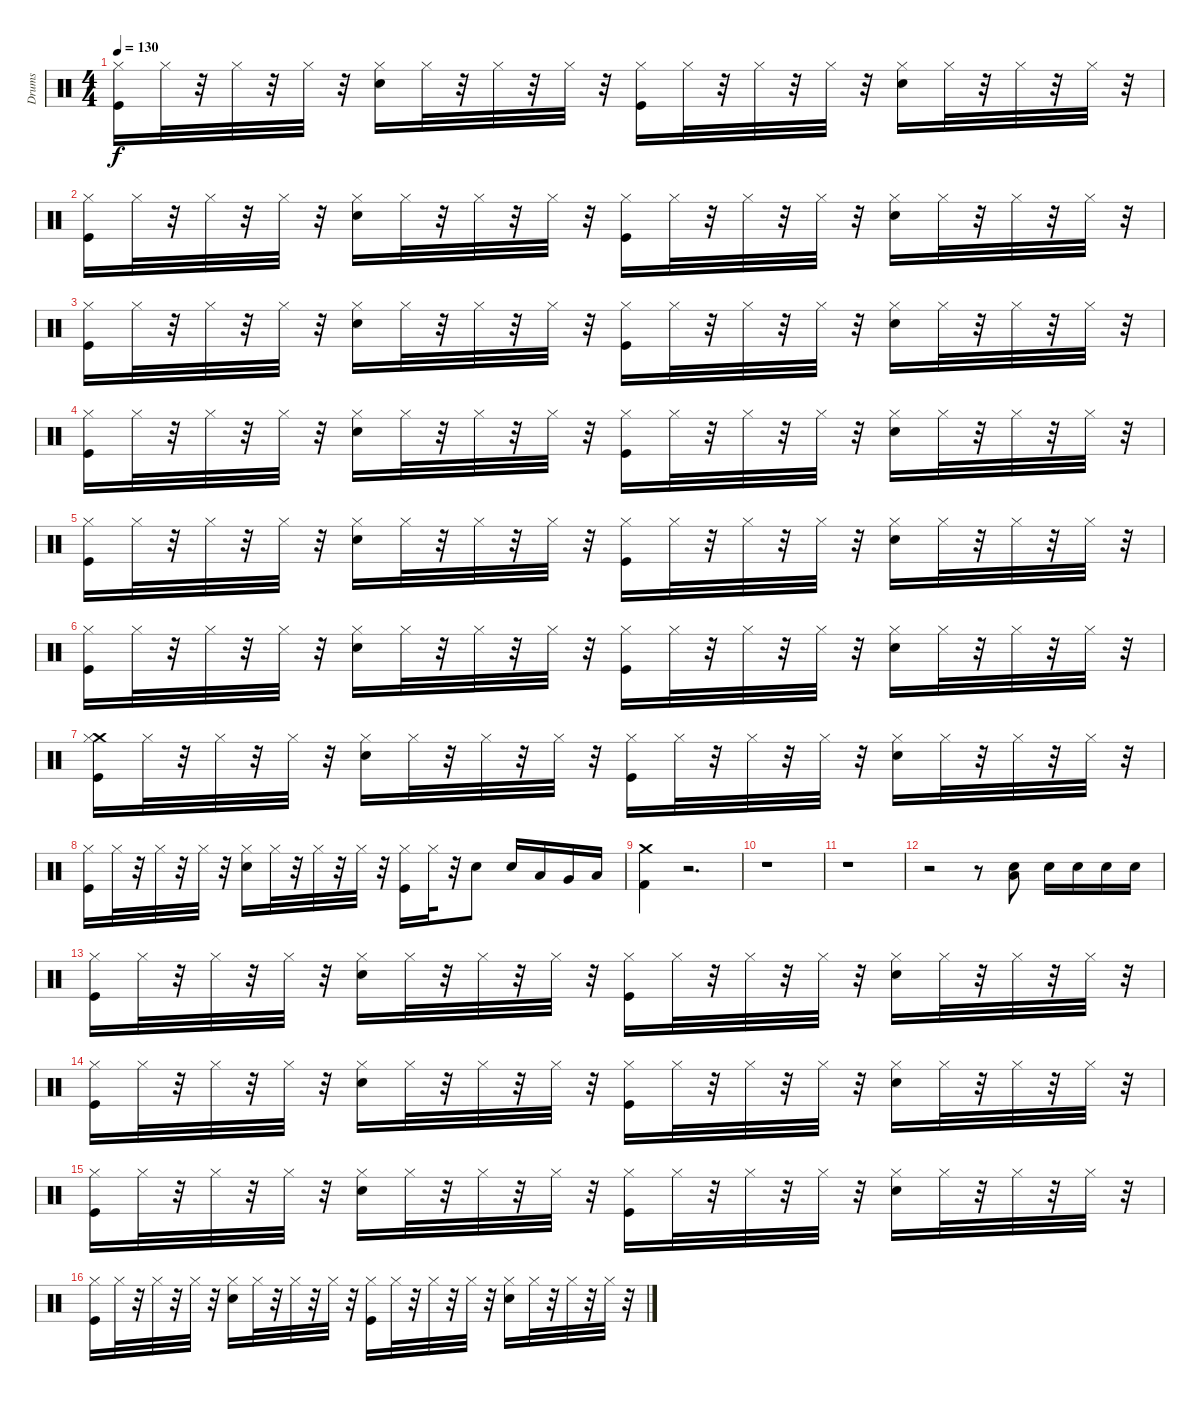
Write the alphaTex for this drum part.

\track ("Drums" "Drums") {instrument percussion}
\staff {score}
\articulation defaults
\ts (4 4)
\tempo 130
\clef neutral
\ks c
("Hi-Hat (closed)" "Kick (hit)").16{dy f} "Hi-Hat (closed)".32 r.32 "Hi-Hat (closed)".32 r.32 "Hi-Hat (closed)".32 r.32 ("Hi-Hat (closed)" "Snare (hit) 2").16 "Hi-Hat (closed)".32 r.32 "Hi-Hat (closed)".32 r.32 "Hi-Hat (closed)".32 r.32 ("Hi-Hat (closed)" "Kick (hit)").16 "Hi-Hat (closed)".32 r.32 "Hi-Hat (closed)".32 r.32 "Hi-Hat (closed)".32 r.32 ("Hi-Hat (closed)" "Snare (hit) 2").16 "Hi-Hat (closed)".32 r.32 "Hi-Hat (closed)".32 r.32 "Hi-Hat (closed)".32 r.32 |
("Hi-Hat (closed)" "Kick (hit)").16 "Hi-Hat (closed)".32 r.32 "Hi-Hat (closed)".32 r.32 "Hi-Hat (closed)".32 r.32 ("Hi-Hat (closed)" "Snare (hit) 2").16 "Hi-Hat (closed)".32 r.32 "Hi-Hat (closed)".32 r.32 "Hi-Hat (closed)".32 r.32 ("Hi-Hat (closed)" "Kick (hit)").16 "Hi-Hat (closed)".32 r.32 "Hi-Hat (closed)".32 r.32 "Hi-Hat (closed)".32 r.32 ("Hi-Hat (closed)" "Snare (hit) 2").16 "Hi-Hat (closed)".32 r.32 "Hi-Hat (closed)".32 r.32 "Hi-Hat (closed)".32 r.32 |
("Hi-Hat (closed)" "Kick (hit)").16 "Hi-Hat (closed)".32 r.32 "Hi-Hat (closed)".32 r.32 "Hi-Hat (closed)".32 r.32 ("Hi-Hat (closed)" "Snare (hit) 2").16 "Hi-Hat (closed)".32 r.32 "Hi-Hat (closed)".32 r.32 "Hi-Hat (closed)".32 r.32 ("Hi-Hat (closed)" "Kick (hit)").16 "Hi-Hat (closed)".32 r.32 "Hi-Hat (closed)".32 r.32 "Hi-Hat (closed)".32 r.32 ("Hi-Hat (closed)" "Snare (hit) 2").16 "Hi-Hat (closed)".32 r.32 "Hi-Hat (closed)".32 r.32 "Hi-Hat (closed)".32 r.32 |
("Hi-Hat (closed)" "Kick (hit)").16 "Hi-Hat (closed)".32 r.32 "Hi-Hat (closed)".32 r.32 "Hi-Hat (closed)".32 r.32 ("Hi-Hat (closed)" "Snare (hit) 2").16 "Hi-Hat (closed)".32 r.32 "Hi-Hat (closed)".32 r.32 "Hi-Hat (closed)".32 r.32 ("Hi-Hat (closed)" "Kick (hit)").16 "Hi-Hat (closed)".32 r.32 "Hi-Hat (closed)".32 r.32 "Hi-Hat (closed)".32 r.32 ("Hi-Hat (closed)" "Snare (hit) 2").16 "Hi-Hat (closed)".32 r.32 "Hi-Hat (closed)".32 r.32 "Hi-Hat (closed)".32 r.32 |
("Hi-Hat (closed)" "Kick (hit)").16 "Hi-Hat (closed)".32 r.32 "Hi-Hat (closed)".32 r.32 "Hi-Hat (closed)".32 r.32 ("Hi-Hat (closed)" "Snare (hit) 2").16 "Hi-Hat (closed)".32 r.32 "Hi-Hat (closed)".32 r.32 "Hi-Hat (closed)".32 r.32 ("Hi-Hat (closed)" "Kick (hit)").16 "Hi-Hat (closed)".32 r.32 "Hi-Hat (closed)".32 r.32 "Hi-Hat (closed)".32 r.32 ("Hi-Hat (closed)" "Snare (hit) 2").16 "Hi-Hat (closed)".32 r.32 "Hi-Hat (closed)".32 r.32 "Hi-Hat (closed)".32 r.32 |
("Hi-Hat (closed)" "Kick (hit)").16 "Hi-Hat (closed)".32 r.32 "Hi-Hat (closed)".32 r.32 "Hi-Hat (closed)".32 r.32 ("Hi-Hat (closed)" "Snare (hit) 2").16 "Hi-Hat (closed)".32 r.32 "Hi-Hat (closed)".32 r.32 "Hi-Hat (closed)".32 r.32 ("Hi-Hat (closed)" "Kick (hit)").16 "Hi-Hat (closed)".32 r.32 "Hi-Hat (closed)".32 r.32 "Hi-Hat (closed)".32 r.32 ("Hi-Hat (closed)" "Snare (hit) 2").16 "Hi-Hat (closed)".32 r.32 "Hi-Hat (closed)".32 r.32 "Hi-Hat (closed)".32 r.32 |
("Crash medium (hit)" "Hi-Hat (closed)" "Kick (hit)").16 "Hi-Hat (closed)".32 r.32 "Hi-Hat (closed)".32 r.32 "Hi-Hat (closed)".32 r.32 ("Hi-Hat (closed)" "Snare (hit) 2").16 "Hi-Hat (closed)".32 r.32 "Hi-Hat (closed)".32 r.32 "Hi-Hat (closed)".32 r.32 ("Hi-Hat (closed)" "Kick (hit)").16 "Hi-Hat (closed)".32 r.32 "Hi-Hat (closed)".32 r.32 "Hi-Hat (closed)".32 r.32 ("Hi-Hat (closed)" "Snare (hit) 2").16 "Hi-Hat (closed)".32 r.32 "Hi-Hat (closed)".32 r.32 "Hi-Hat (closed)".32 r.32 |
("Kick (hit)" "Hi-Hat (closed)").16 "Hi-Hat (closed)".32 r.32 "Hi-Hat (closed)".32 r.32 "Hi-Hat (closed)".32 r.32 ("Snare (hit) 2" "Hi-Hat (closed)").16 "Hi-Hat (closed)".32 r.32 "Hi-Hat (closed)".32 r.32 "Hi-Hat (closed)".32 r.32 ("Kick (hit)" "Hi-Hat (closed)").16 "Hi-Hat (closed)".32 r.32 "Snare (hit) 2".8 "Snare (hit) 2".16 "Low Tom (hit)".16 "Very Low Tom (hit)".16 "Low Floor Tom (hit)".16 |
("Kick (hit) 2" "Crash medium (hit)").4 r.2{d} |
r.1 |
r.1 |
r.2 r.8 ("Snare (hit) 2" "Low Floor Tom (hit)").8 "Snare (hit) 2".16 "Snare (hit) 2".16 "Snare (hit) 2".16 "Snare (hit) 2".16 |
("Hi-Hat (closed)" "Kick (hit)").16 "Hi-Hat (closed)".32 r.32 "Hi-Hat (closed)".32 r.32 "Hi-Hat (closed)".32 r.32 ("Hi-Hat (closed)" "Snare (hit) 2").16 "Hi-Hat (closed)".32 r.32 "Hi-Hat (closed)".32 r.32 "Hi-Hat (closed)".32 r.32 ("Hi-Hat (closed)" "Kick (hit)").16 "Hi-Hat (closed)".32 r.32 "Hi-Hat (closed)".32 r.32 "Hi-Hat (closed)".32 r.32 ("Hi-Hat (closed)" "Snare (hit) 2").16 "Hi-Hat (closed)".32 r.32 "Hi-Hat (closed)".32 r.32 "Hi-Hat (closed)".32 r.32 |
("Hi-Hat (closed)" "Kick (hit)").16 "Hi-Hat (closed)".32 r.32 "Hi-Hat (closed)".32 r.32 "Hi-Hat (closed)".32 r.32 ("Hi-Hat (closed)" "Snare (hit) 2").16 "Hi-Hat (closed)".32 r.32 "Hi-Hat (closed)".32 r.32 "Hi-Hat (closed)".32 r.32 ("Hi-Hat (closed)" "Kick (hit)").16 "Hi-Hat (closed)".32 r.32 "Hi-Hat (closed)".32 r.32 "Hi-Hat (closed)".32 r.32 ("Hi-Hat (closed)" "Snare (hit) 2").16 "Hi-Hat (closed)".32 r.32 "Hi-Hat (closed)".32 r.32 "Hi-Hat (closed)".32 r.32 |
("Hi-Hat (closed)" "Kick (hit)").16 "Hi-Hat (closed)".32 r.32 "Hi-Hat (closed)".32 r.32 "Hi-Hat (closed)".32 r.32 ("Hi-Hat (closed)" "Snare (hit) 2").16 "Hi-Hat (closed)".32 r.32 "Hi-Hat (closed)".32 r.32 "Hi-Hat (closed)".32 r.32 ("Hi-Hat (closed)" "Kick (hit)").16 "Hi-Hat (closed)".32 r.32 "Hi-Hat (closed)".32 r.32 "Hi-Hat (closed)".32 r.32 ("Hi-Hat (closed)" "Snare (hit) 2").16 "Hi-Hat (closed)".32 r.32 "Hi-Hat (closed)".32 r.32 "Hi-Hat (closed)".32 r.32 |
("Hi-Hat (closed)" "Kick (hit)").16 "Hi-Hat (closed)".32 r.32 "Hi-Hat (closed)".32 r.32 "Hi-Hat (closed)".32 r.32 ("Hi-Hat (closed)" "Snare (hit) 2").16 "Hi-Hat (closed)".32 r.32 "Hi-Hat (closed)".32 r.32 "Hi-Hat (closed)".32 r.32 ("Hi-Hat (closed)" "Kick (hit)").16 "Hi-Hat (closed)".32 r.32 "Hi-Hat (closed)".32 r.32 "Hi-Hat (closed)".32 r.32 ("Hi-Hat (closed)" "Snare (hit) 2").16 "Hi-Hat (closed)".32 r.32 "Hi-Hat (closed)".32 r.32 "Hi-Hat (closed)".32 r.32
